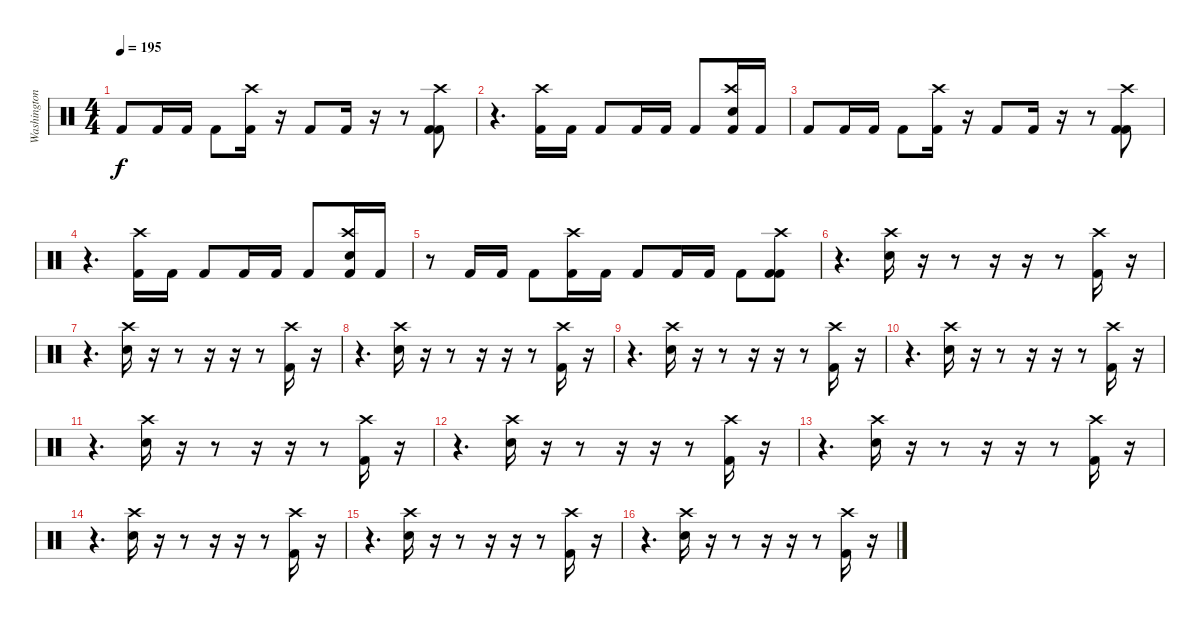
\track ("Washington" "Washington") {solo instrument percussion}
\staff {score}
\articulation defaults
\ts (4 4)
\tempo 195
\clef neutral
\ks c "Kick (hit) 2".8{dy f} "Kick (hit) 2".16 "Kick (hit) 2".16 "Kick (hit) 2".8
("Crash high (hit)" "Kick (hit) 2").16 r.16 "Kick (hit) 2".8 "Kick (hit) 2".16 r.16 r.8 ("Crash high (hit)" "Kick (hit) 2" "Kick (hit) 2").8 |
r.4{d} ("Crash high (hit)" "Kick (hit) 2").16 "Kick (hit) 2".16 "Kick (hit) 2".8 "Kick (hit) 2".16 "Kick (hit) 2".16 "Kick (hit) 2".8 ("Crash high (hit)" "Electric Snare (hit)" "Kick (hit) 2").16 "Kick (hit) 2".16 |
"Kick (hit) 2".8 "Kick (hit) 2".16 "Kick (hit) 2".16 "Kick (hit) 2".8 ("Crash high (hit)" "Kick (hit) 2").16 r.16 "Kick (hit) 2".8 "Kick (hit) 2".16 r.16 r.8 ("Crash high (hit)" "Kick (hit) 2" "Kick (hit) 2").8 |
r.4{d} ("Crash high (hit)" "Kick (hit) 2").16 "Kick (hit) 2".16 "Kick (hit) 2".8 "Kick (hit) 2".16 "Kick (hit) 2".16 "Kick (hit) 2".8 ("Crash high (hit)" "Electric Snare (hit)" "Kick (hit) 2").16 "Kick (hit) 2".16 |
r.8 "Kick (hit) 2".16 "Kick (hit) 2".16 "Kick (hit) 2".8 ("Crash high (hit)" "Kick (hit) 2").16 "Kick (hit) 2".16 "Kick (hit) 2".8 "Kick (hit) 2".16 "Kick (hit) 2".16 "Kick (hit) 2".8 ("Crash high (hit)" "Kick (hit) 2" "Kick (hit) 2").8 |
r.4{d} ("Crash high (hit)" "Electric Snare (hit)").16 r.16 r.8 r.16 r.16 r.8 ("Crash high (hit)" "Kick (hit) 2").16 r.16 |
r.4{d} ("Crash high (hit)" "Electric Snare (hit)").16 r.16 r.8 r.16 r.16 r.8 ("Crash high (hit)" "Kick (hit) 2").16 r.16 |
r.4{d} ("Crash high (hit)" "Electric Snare (hit)").16 r.16 r.8 r.16 r.16 r.8 ("Crash high (hit)" "Kick (hit) 2").16 r.16 |
r.4{d} ("Crash high (hit)" "Electric Snare (hit)").16 r.16 r.8 r.16 r.16 r.8 ("Crash high (hit)" "Kick (hit) 2").16 r.16 |
r.4{d} ("Crash high (hit)" "Electric Snare (hit)").16 r.16 r.8 r.16 r.16 r.8 ("Crash high (hit)" "Kick (hit) 2").16 r.16 |
r.4{d} ("Crash high (hit)" "Electric Snare (hit)").16 r.16 r.8 r.16 r.16 r.8 ("Crash high (hit)" "Kick (hit) 2").16 r.16 |
r.4{d} ("Crash high (hit)" "Electric Snare (hit)").16 r.16 r.8 r.16 r.16 r.8 ("Crash high (hit)" "Kick (hit) 2").16 r.16 |
r.4{d} ("Crash high (hit)" "Electric Snare (hit)").16 r.16 r.8 r.16 r.16 r.8 ("Crash high (hit)" "Kick (hit) 2").16 r.16 |
r.4{d} ("Crash high (hit)" "Electric Snare (hit)").16 r.16 r.8 r.16 r.16 r.8 ("Crash high (hit)" "Kick (hit) 2").16 r.16 |
r.4{d} ("Crash high (hit)" "Electric Snare (hit)").16 r.16 r.8 r.16 r.16 r.8 ("Crash high (hit)" "Kick (hit) 2").16 r.16 |
r.4{d} ("Crash high (hit)" "Electric Snare (hit)").16 r.16 r.8 r.16 r.16 r.8 ("Crash high (hit)" "Kick (hit) 2").16 r.16
